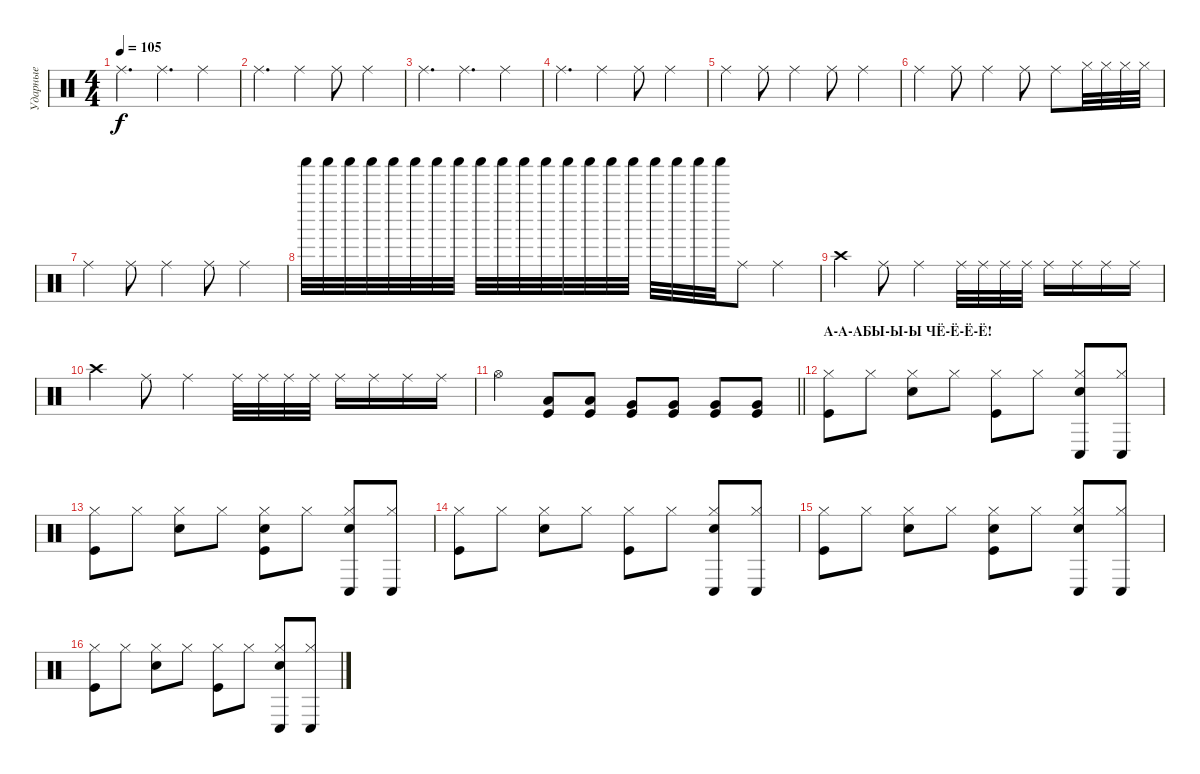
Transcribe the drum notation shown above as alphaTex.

\track ("Ударные" "Ударные") {instrument percussion}
\staff {score}
\articulation defaults
\ts (4 4)
\tempo 105
\clef neutral
\ks c "Ride (middle)".4{d dy f} "Ride (middle)".4{d} "Ride (middle)".4
|
"Ride (middle)".4{d} "Ride (middle)".4 "Ride (middle)".8 "Ride (middle)".4 |
"Ride (middle)".4{d} "Ride (middle)".4{d} "Ride (middle)".4 |
"Ride (middle)".4{d} "Ride (middle)".4 "Ride (middle)".8 "Ride (middle)".4 |
"Ride (middle)".4 "Ride (middle)".8 "Ride (middle)".4 "Ride (middle)".8 "Ride (middle)".4 |
"Ride (middle)".4 "Ride (middle)".8 "Ride (middle)".4 "Ride (middle)".8 "Ride (middle)".8 "Hi-Hat (closed)".32 "Hi-Hat (closed)".32 "Hi-Hat (closed)".32 "Hi-Hat (closed)".32 |
"Ride (middle)".4 "Ride (middle)".8 "Ride (middle)".4 "Ride (middle)".8 "Ride (middle)".4 |
"Shaker (hit)".32 "Shaker (hit)".32 "Shaker (hit)".32 "Shaker (hit)".32 "Shaker (hit)".32 "Shaker (hit)".32 "Shaker (hit)".32 "Shaker (hit)".32 "Shaker (hit)".32 "Shaker (hit)".32 "Shaker (hit)".32 "Shaker (hit)".32 "Shaker (hit)".32 "Shaker (hit)".32 "Shaker (hit)".32 "Shaker (hit)".32 "Shaker (hit)".32 "Shaker (hit)".32 "Shaker (hit)".32 "Shaker (hit)".32 "Ride (middle)".8 "Ride (middle)".4 |
"Crash high (hit)".4 "Ride (middle)".8 "Ride (middle)".4 "Ride (middle)".32 "Ride (middle)".32 "Ride (middle)".32 "Ride (middle)".32 "Ride (middle)".16 "Ride (middle)".16 "Ride (middle)".16 "Ride (middle)".16 |
"Crash high (hit)".4 "Ride (middle)".8 "Ride (middle)".4 "Ride (middle)".32 "Ride (middle)".32 "Ride (middle)".32 "Ride (middle)".32 "Ride (middle)".16 "Ride (middle)".16 "Ride (middle)".16 "Ride (middle)".16 |
\barLineRight lightlight "Hi-Hat (open)".4
("Kick (hit)" "Low Tom (hit)").8 ("Kick (hit)" "Low Tom (hit)").8 ("Kick (hit)" "Very Low Tom (hit)").8 ("Kick (hit)" "Very Low Tom (hit)").8 ("Kick (hit)" "Very Low Tom (hit)").8 ("Kick (hit)" "Very Low Tom (hit)").8 |
\section ("" "А-А-АБЫ-Ы-Ы ЧЁ-Ё-Ё-Ё!")
("Kick (hit)" "Hi-Hat (closed)").8 "Hi-Hat (closed)".8 ("Snare (hit) 2" "Hi-Hat (closed)").8 "Hi-Hat (closed)".8 ("Hi-Hat (closed)" "Kick (hit)").8 "Hi-Hat (closed)".8 ("Hi-Hat (closed)" "Conga low (hit)" "Snare (hit) 2").8 ("Hi-Hat (closed)" "Conga low (hit)").8 |
("Kick (hit)" "Hi-Hat (closed)").8 "Hi-Hat (closed)".8 ("Snare (hit) 2" "Hi-Hat (closed)").8 "Hi-Hat (closed)".8 ("Hi-Hat (closed)" "Kick (hit)" "Snare (hit) 2").8 "Hi-Hat (closed)".8 ("Hi-Hat (closed)" "Conga low (hit)" "Snare (hit) 2").8 ("Hi-Hat (closed)" "Conga low (hit)").8 |
("Kick (hit)" "Hi-Hat (closed)").8 "Hi-Hat (closed)".8 ("Snare (hit) 2" "Hi-Hat (closed)").8 "Hi-Hat (closed)".8 ("Hi-Hat (closed)" "Kick (hit)").8 "Hi-Hat (closed)".8 ("Hi-Hat (closed)" "Conga low (hit)" "Snare (hit) 2").8 ("Hi-Hat (closed)" "Conga low (hit)").8 |
("Kick (hit)" "Hi-Hat (closed)").8 "Hi-Hat (closed)".8 ("Snare (hit) 2" "Hi-Hat (closed)").8 "Hi-Hat (closed)".8 ("Hi-Hat (closed)" "Kick (hit)" "Snare (hit) 2").8 "Hi-Hat (closed)".8 ("Hi-Hat (closed)" "Conga low (hit)" "Snare (hit) 2").8 ("Hi-Hat (closed)" "Conga low (hit)").8 |
("Kick (hit)" "Hi-Hat (closed)").8 "Hi-Hat (closed)".8 ("Snare (hit) 2" "Hi-Hat (closed)").8 "Hi-Hat (closed)".8 ("Hi-Hat (closed)" "Kick (hit)").8 "Hi-Hat (closed)".8 ("Hi-Hat (closed)" "Conga low (hit)" "Snare (hit) 2").8 ("Hi-Hat (closed)" "Conga low (hit)").8
